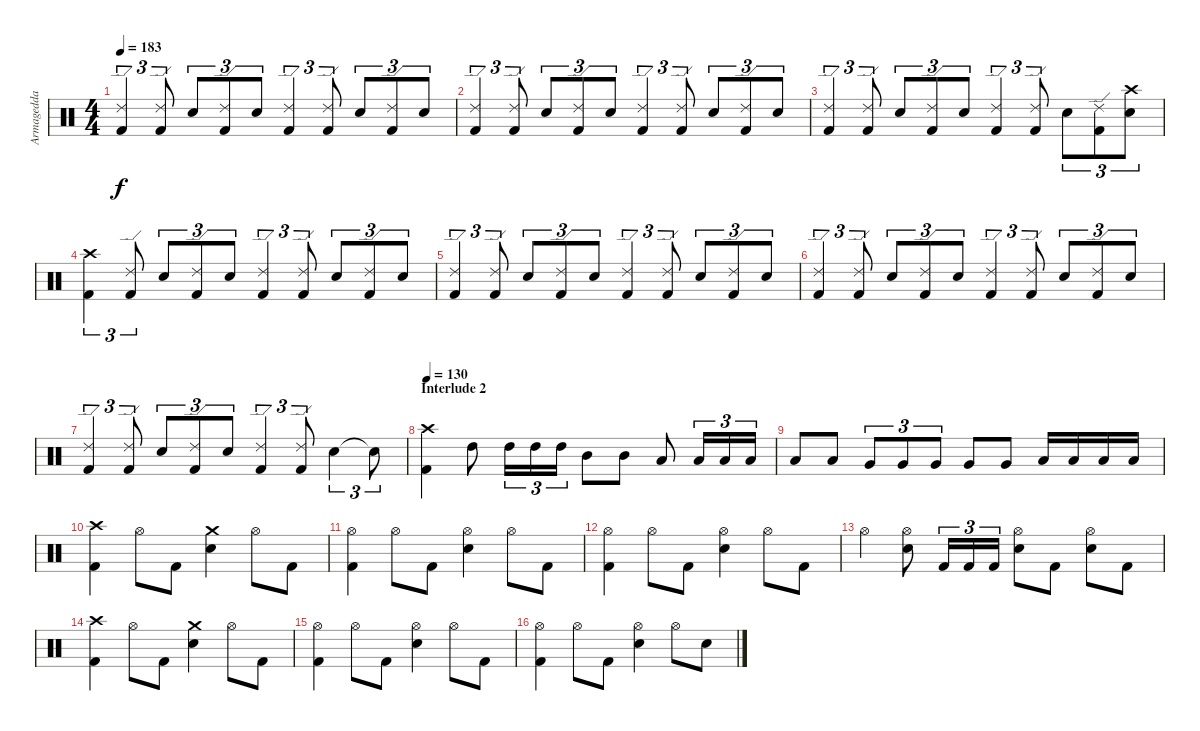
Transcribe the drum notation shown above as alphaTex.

\track ("Armagedda" "Armagedda") {instrument percussion}
\staff {score}
\articulation defaults
\ts (4 4)
\tempo 183
\clef neutral
\ks c
("Ride (edge) 2" "Kick (hit) 2").4{tu (3 2) dy f} ("Ride (edge) 2" "Kick (hit) 2").8{tu (3 2)} "Electric Snare (hit)".8{tu (3 2)} ("Ride (edge) 2" "Kick (hit) 2").8{tu (3 2)} "Electric Snare (hit)".8{tu (3 2)} ("Ride (edge) 2" "Kick (hit) 2").4{tu (3 2)} ("Ride (edge) 2" "Kick (hit) 2").8{tu (3 2)} "Electric Snare (hit)".8{tu (3 2)} ("Ride (edge) 2" "Kick (hit) 2").8{tu (3 2)} "Electric Snare (hit)".8{tu (3 2)} |
("Ride (edge) 2" "Kick (hit) 2").4{tu (3 2)} ("Ride (edge) 2" "Kick (hit) 2").8{tu (3 2)} "Electric Snare (hit)".8{tu (3 2)} ("Ride (edge) 2" "Kick (hit) 2").8{tu (3 2)} "Electric Snare (hit)".8{tu (3 2)} ("Ride (edge) 2" "Kick (hit) 2").4{tu (3 2)} ("Ride (edge) 2" "Kick (hit) 2").8{tu (3 2)} "Electric Snare (hit)".8{tu (3 2)} ("Ride (edge) 2" "Kick (hit) 2").8{tu (3 2)} "Electric Snare (hit)".8{tu (3 2)} |
("Ride (edge) 2" "Kick (hit) 2").4{tu (3 2)} ("Ride (edge) 2" "Kick (hit) 2").8{tu (3 2)} "Electric Snare (hit)".8{tu (3 2)} ("Ride (edge) 2" "Kick (hit) 2").8{tu (3 2)} "Electric Snare (hit)".8{tu (3 2)} ("Ride (edge) 2" "Kick (hit) 2").4{tu (3 2)} ("Ride (edge) 2" "Kick (hit) 2").8{tu (3 2)} "Electric Snare (hit)".8{tu (3 2)} ("Ride (edge) 2" "Kick (hit) 2").8{tu (3 2)} ("Crash high (hit)" "Electric Snare (hit)").8{tu (3 2)} |
("Crash high (hit)" "Kick (hit) 2").4{tu (3 2)} ("Ride (edge) 2" "Kick (hit) 2").8{tu (3 2)} "Electric Snare (hit)".8{tu (3 2)} ("Ride (edge) 2" "Kick (hit) 2").8{tu (3 2)} "Electric Snare (hit)".8{tu (3 2)} ("Ride (edge) 2" "Kick (hit) 2").4{tu (3 2)} ("Ride (edge) 2" "Kick (hit) 2").8{tu (3 2)} "Electric Snare (hit)".8{tu (3 2)} ("Ride (edge) 2" "Kick (hit) 2").8{tu (3 2)} "Electric Snare (hit)".8{tu (3 2)} |
("Ride (edge) 2" "Kick (hit) 2").4{tu (3 2)} ("Ride (edge) 2" "Kick (hit) 2").8{tu (3 2)} "Electric Snare (hit)".8{tu (3 2)} ("Ride (edge) 2" "Kick (hit) 2").8{tu (3 2)} "Electric Snare (hit)".8{tu (3 2)} ("Ride (edge) 2" "Kick (hit) 2").4{tu (3 2)} ("Ride (edge) 2" "Kick (hit) 2").8{tu (3 2)} "Electric Snare (hit)".8{tu (3 2)} ("Ride (edge) 2" "Kick (hit) 2").8{tu (3 2)} "Electric Snare (hit)".8{tu (3 2)} |
("Ride (edge) 2" "Kick (hit) 2").4{tu (3 2)} ("Ride (edge) 2" "Kick (hit) 2").8{tu (3 2)} "Electric Snare (hit)".8{tu (3 2)} ("Ride (edge) 2" "Kick (hit) 2").8{tu (3 2)} "Electric Snare (hit)".8{tu (3 2)} ("Ride (edge) 2" "Kick (hit) 2").4{tu (3 2)} ("Ride (edge) 2" "Kick (hit) 2").8{tu (3 2)} "Electric Snare (hit)".8{tu (3 2)} ("Ride (edge) 2" "Kick (hit) 2").8{tu (3 2)} "Electric Snare (hit)".8{tu (3 2)} |
("Ride (edge) 2" "Kick (hit) 2").4{tu (3 2)} ("Ride (edge) 2" "Kick (hit) 2").8{tu (3 2)} "Electric Snare (hit)".8{tu (3 2)} ("Ride (edge) 2" "Kick (hit) 2").8{tu (3 2)} "Electric Snare (hit)".8{tu (3 2)} ("Ride (edge) 2" "Kick (hit) 2").4{tu (3 2)} ("Ride (edge) 2" "Kick (hit) 2").8{tu (3 2)} "Electric Snare (hit)".4{tu (3 2)} "Snare (hit)"{t}.8{tu (3 2)} |
\section ("" "Interlude 2")
\tempo 130
("Crash high (hit)" "Kick (hit) 2").4 "High Tom (hit)".8 "High Tom (hit)".16{tu (3 2)} "High Tom (hit)".16{tu (3 2)} "High Tom (hit)".16{tu (3 2)} "Mid Tom (hit)".8 "Mid Tom (hit)".8 "Low Tom (hit)".8 "Low Tom (hit)".16{tu (3 2)} "Low Tom (hit)".16{tu (3 2)} "Low Tom (hit)".16{tu (3 2)} |
"Low Tom (hit)".8 "Low Tom (hit)".8 "Very Low Tom (hit)".8{tu (3 2)} "Very Low Tom (hit)".8{tu (3 2)} "Very Low Tom (hit)".8{tu (3 2)} "Very Low Tom (hit)".8 "Very Low Tom (hit)".8 "Low Floor Tom (hit)".16 "Low Floor Tom (hit)".16 "Low Floor Tom (hit)".16 "Low Floor Tom (hit)".16 |
("Crash high (hit)" "Kick (hit) 2").4 "Hi-Hat (open)".8 "Kick (hit) 2".8 ("Crash medium (hit)" "Electric Snare (hit)").4 "Hi-Hat (open)".8 "Kick (hit) 2".8 |
("Hi-Hat (open)" "Kick (hit) 2").4 "Hi-Hat (open)".8 "Kick (hit) 2".8 ("Hi-Hat (open)" "Electric Snare (hit)").4 "Hi-Hat (open)".8 "Kick (hit) 2".8 |
("Hi-Hat (open)" "Kick (hit) 2").4 "Hi-Hat (open)".8 "Kick (hit) 2".8 ("Hi-Hat (open)" "Electric Snare (hit)").4 "Hi-Hat (open)".8 "Kick (hit) 2".8 |
"Hi-Hat (open)".4 ("Hi-Hat (open)" "Electric Snare (hit)").8 "Kick (hit) 2".16{tu (3 2)} "Kick (hit) 2".16{tu (3 2)} "Kick (hit) 2".16{tu (3 2)} ("Hi-Hat (open)" "Electric Snare (hit)").8 "Kick (hit) 2".8 ("Hi-Hat (open)" "Electric Snare (hit)").8 "Kick (hit) 2".8 |
("Crash high (hit)" "Kick (hit) 2").4 "Hi-Hat (open)".8 "Kick (hit) 2".8 ("Crash medium (hit)" "Electric Snare (hit)").4 "Hi-Hat (open)".8 "Kick (hit) 2".8 |
("Hi-Hat (open)" "Kick (hit) 2").4 "Hi-Hat (open)".8 "Kick (hit) 2".8 ("Hi-Hat (open)" "Electric Snare (hit)").4 "Hi-Hat (open)".8 "Kick (hit) 2".8 |
("Hi-Hat (open)" "Kick (hit) 2").4 "Hi-Hat (open)".8 "Kick (hit) 2".8 ("Hi-Hat (open)" "Electric Snare (hit)").4 "Hi-Hat (open)".8 "Electric Snare (hit)".8
